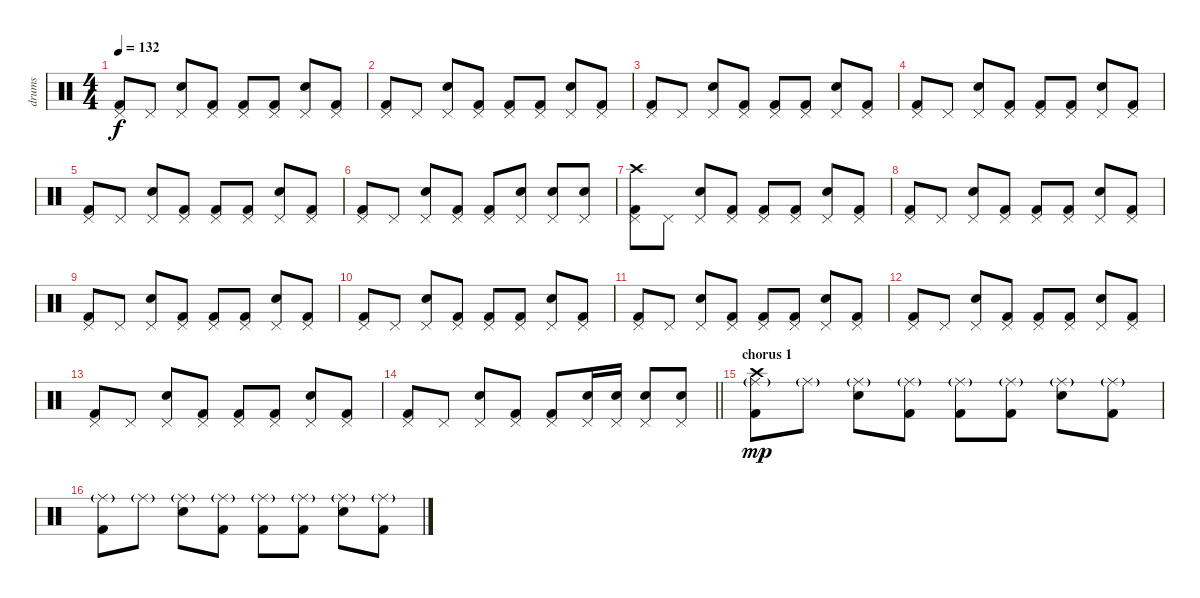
\track ("drums" "drums") {instrument percussion}
\staff {score}
\articulation defaults
\ts (4 4)
\tempo 132
\clef neutral
\ks c
("Kick (hit) 2" "Pedal Hi-Hat (hit)").8{dy f} "Pedal Hi-Hat (hit)".8 ("Electric Snare (hit)" "Pedal Hi-Hat (hit)").8 ("Kick (hit) 2" "Pedal Hi-Hat (hit)").8 ("Kick (hit) 2" "Pedal Hi-Hat (hit)").8 ("Kick (hit) 2" "Pedal Hi-Hat (hit)").8 ("Electric Snare (hit)" "Pedal Hi-Hat (hit)").8 ("Kick (hit) 2" "Pedal Hi-Hat (hit)").8 |
("Kick (hit) 2" "Pedal Hi-Hat (hit)").8 "Pedal Hi-Hat (hit)".8 ("Electric Snare (hit)" "Pedal Hi-Hat (hit)").8 ("Kick (hit) 2" "Pedal Hi-Hat (hit)").8 ("Kick (hit) 2" "Pedal Hi-Hat (hit)").8 ("Kick (hit) 2" "Pedal Hi-Hat (hit)").8 ("Electric Snare (hit)" "Pedal Hi-Hat (hit)").8 ("Kick (hit) 2" "Pedal Hi-Hat (hit)").8 |
("Kick (hit) 2" "Pedal Hi-Hat (hit)").8 "Pedal Hi-Hat (hit)".8 ("Electric Snare (hit)" "Pedal Hi-Hat (hit)").8 ("Kick (hit) 2" "Pedal Hi-Hat (hit)").8 ("Kick (hit) 2" "Pedal Hi-Hat (hit)").8 ("Kick (hit) 2" "Pedal Hi-Hat (hit)").8 ("Electric Snare (hit)" "Pedal Hi-Hat (hit)").8 ("Kick (hit) 2" "Pedal Hi-Hat (hit)").8 |
("Kick (hit) 2" "Pedal Hi-Hat (hit)").8 "Pedal Hi-Hat (hit)".8 ("Electric Snare (hit)" "Pedal Hi-Hat (hit)").8 ("Kick (hit) 2" "Pedal Hi-Hat (hit)").8 ("Kick (hit) 2" "Pedal Hi-Hat (hit)").8 ("Kick (hit) 2" "Pedal Hi-Hat (hit)").8 ("Electric Snare (hit)" "Pedal Hi-Hat (hit)").8 ("Kick (hit) 2" "Pedal Hi-Hat (hit)").8 |
("Kick (hit) 2" "Pedal Hi-Hat (hit)").8 "Pedal Hi-Hat (hit)".8 ("Electric Snare (hit)" "Pedal Hi-Hat (hit)").8 ("Kick (hit) 2" "Pedal Hi-Hat (hit)").8 ("Kick (hit) 2" "Pedal Hi-Hat (hit)").8 ("Kick (hit) 2" "Pedal Hi-Hat (hit)").8 ("Electric Snare (hit)" "Pedal Hi-Hat (hit)").8 ("Kick (hit) 2" "Pedal Hi-Hat (hit)").8 |
("Kick (hit) 2" "Pedal Hi-Hat (hit)").8 "Pedal Hi-Hat (hit)".8 ("Electric Snare (hit)" "Pedal Hi-Hat (hit)").8 ("Kick (hit) 2" "Pedal Hi-Hat (hit)").8 ("Kick (hit) 2" "Pedal Hi-Hat (hit)").8 ("Electric Snare (hit)" "Pedal Hi-Hat (hit)").8 ("Electric Snare (hit)" "Pedal Hi-Hat (hit)").8 ("Electric Snare (hit)" "Pedal Hi-Hat (hit)").8 |
("Kick (hit) 2" "Pedal Hi-Hat (hit)" "Crash high (hit)").8 "Pedal Hi-Hat (hit)".8 ("Electric Snare (hit)" "Pedal Hi-Hat (hit)").8 ("Kick (hit) 2" "Pedal Hi-Hat (hit)").8 ("Kick (hit) 2" "Pedal Hi-Hat (hit)").8 ("Kick (hit) 2" "Pedal Hi-Hat (hit)").8 ("Electric Snare (hit)" "Pedal Hi-Hat (hit)").8 ("Kick (hit) 2" "Pedal Hi-Hat (hit)").8 |
("Kick (hit) 2" "Pedal Hi-Hat (hit)").8 "Pedal Hi-Hat (hit)".8 ("Electric Snare (hit)" "Pedal Hi-Hat (hit)").8 ("Kick (hit) 2" "Pedal Hi-Hat (hit)").8 ("Kick (hit) 2" "Pedal Hi-Hat (hit)").8 ("Kick (hit) 2" "Pedal Hi-Hat (hit)").8 ("Electric Snare (hit)" "Pedal Hi-Hat (hit)").8 ("Kick (hit) 2" "Pedal Hi-Hat (hit)").8 |
("Kick (hit) 2" "Pedal Hi-Hat (hit)").8 "Pedal Hi-Hat (hit)".8 ("Electric Snare (hit)" "Pedal Hi-Hat (hit)").8 ("Kick (hit) 2" "Pedal Hi-Hat (hit)").8 ("Kick (hit) 2" "Pedal Hi-Hat (hit)").8 ("Kick (hit) 2" "Pedal Hi-Hat (hit)").8 ("Electric Snare (hit)" "Pedal Hi-Hat (hit)").8 ("Kick (hit) 2" "Pedal Hi-Hat (hit)").8 |
("Kick (hit) 2" "Pedal Hi-Hat (hit)").8 "Pedal Hi-Hat (hit)".8 ("Electric Snare (hit)" "Pedal Hi-Hat (hit)").8 ("Kick (hit) 2" "Pedal Hi-Hat (hit)").8 ("Kick (hit) 2" "Pedal Hi-Hat (hit)").8 ("Kick (hit) 2" "Pedal Hi-Hat (hit)").8 ("Electric Snare (hit)" "Pedal Hi-Hat (hit)").8 ("Kick (hit) 2" "Pedal Hi-Hat (hit)").8 |
("Kick (hit) 2" "Pedal Hi-Hat (hit)").8 "Pedal Hi-Hat (hit)".8 ("Electric Snare (hit)" "Pedal Hi-Hat (hit)").8 ("Kick (hit) 2" "Pedal Hi-Hat (hit)").8 ("Kick (hit) 2" "Pedal Hi-Hat (hit)").8 ("Kick (hit) 2" "Pedal Hi-Hat (hit)").8 ("Electric Snare (hit)" "Pedal Hi-Hat (hit)").8 ("Kick (hit) 2" "Pedal Hi-Hat (hit)").8 |
("Kick (hit) 2" "Pedal Hi-Hat (hit)").8 "Pedal Hi-Hat (hit)".8 ("Electric Snare (hit)" "Pedal Hi-Hat (hit)").8 ("Kick (hit) 2" "Pedal Hi-Hat (hit)").8 ("Kick (hit) 2" "Pedal Hi-Hat (hit)").8 ("Kick (hit) 2" "Pedal Hi-Hat (hit)").8 ("Electric Snare (hit)" "Pedal Hi-Hat (hit)").8 ("Kick (hit) 2" "Pedal Hi-Hat (hit)").8 |
("Kick (hit) 2" "Pedal Hi-Hat (hit)").8 "Pedal Hi-Hat (hit)".8 ("Electric Snare (hit)" "Pedal Hi-Hat (hit)").8 ("Kick (hit) 2" "Pedal Hi-Hat (hit)").8 ("Kick (hit) 2" "Pedal Hi-Hat (hit)").8 ("Kick (hit) 2" "Pedal Hi-Hat (hit)").8 ("Electric Snare (hit)" "Pedal Hi-Hat (hit)").8 ("Kick (hit) 2" "Pedal Hi-Hat (hit)").8 |
\barLineRight lightlight
("Kick (hit) 2" "Pedal Hi-Hat (hit)").8 "Pedal Hi-Hat (hit)".8 ("Electric Snare (hit)" "Pedal Hi-Hat (hit)").8 ("Kick (hit) 2" "Pedal Hi-Hat (hit)").8 ("Kick (hit) 2" "Pedal Hi-Hat (hit)").8 ("Electric Snare (hit)" "Pedal Hi-Hat (hit)").16 ("Electric Snare (hit)" "Pedal Hi-Hat (hit)").16 ("Electric Snare (hit)" "Pedal Hi-Hat (hit)").8 ("Electric Snare (hit)" "Pedal Hi-Hat (hit)").8 |
\section ("" "chorus 1")
("Kick (hit) 2" "Ride (middle)"{g} "Crash high (hit)").8{dy mp} "Ride (middle)"{g}.8 ("Electric Snare (hit)" "Ride (middle)"{g}).8 ("Kick (hit) 2" "Ride (middle)"{g}).8 ("Kick (hit) 2" "Ride (middle)"{g}).8 ("Kick (hit) 2" "Ride (middle)"{g}).8 ("Electric Snare (hit)" "Ride (middle)"{g}).8 ("Kick (hit) 2" "Ride (middle)"{g}).8 |
("Kick (hit) 2" "Ride (middle)"{g}).8 "Ride (middle)"{g}.8 ("Electric Snare (hit)" "Ride (middle)"{g}).8 ("Kick (hit) 2" "Ride (middle)"{g}).8 ("Kick (hit) 2" "Ride (middle)"{g}).8 ("Kick (hit) 2" "Ride (middle)"{g}).8 ("Electric Snare (hit)" "Ride (middle)"{g}).8 ("Kick (hit) 2" "Ride (middle)"{g}).8
